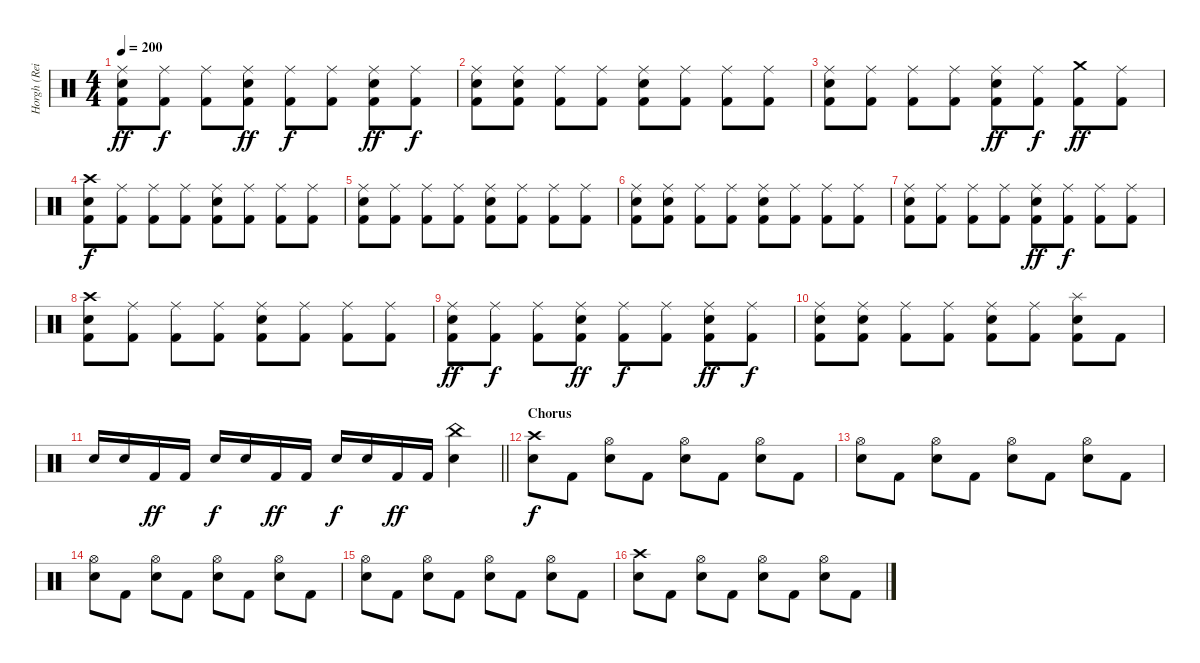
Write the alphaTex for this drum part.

\track ("Horgh (Reidar Horghagen)" "Horgh (Rei") {instrument percussion}
\staff {score}
\articulation defaults
\ts (4 4)
\tempo 200
\clef neutral
\ks c
("Ride (middle)" "Snare (hit) 2" "Kick (hit) 2").8{dy ff} ("Ride (middle)" "Kick (hit) 2").8{dy f} ("Ride (middle)" "Kick (hit) 2").8 ("Ride (middle)" "Snare (hit) 2" "Kick (hit) 2").8{dy ff} ("Ride (middle)" "Kick (hit) 2").8{dy f} ("Ride (middle)" "Kick (hit) 2").8 ("Ride (middle)" "Snare (hit) 2" "Kick (hit) 2").8{dy ff} ("Ride (middle)" "Kick (hit) 2").8{dy f} |
("Ride (middle)" "Snare (hit) 2" "Kick (hit) 2").8 ("Ride (middle)" "Snare (hit) 2" "Kick (hit) 2").8 ("Ride (middle)" "Kick (hit) 2").8 ("Ride (middle)" "Kick (hit) 2").8 ("Ride (middle)" "Snare (hit) 2" "Kick (hit) 2").8 ("Ride (middle)" "Kick (hit) 2").8 ("Ride (middle)" "Kick (hit) 2").8 ("Ride (middle)" "Kick (hit) 2").8 |
("Ride (middle)" "Snare (hit) 2" "Kick (hit) 2").8 ("Ride (middle)" "Kick (hit) 2").8 ("Ride (middle)" "Kick (hit) 2").8 ("Ride (middle)" "Kick (hit) 2").8 ("Ride (middle)" "Snare (hit) 2" "Kick (hit) 2").8{dy ff} ("Ride (middle)" "Kick (hit) 2").8{dy f} ("Crash medium (hit)" "Kick (hit) 2").8{dy ff} ("Ride (middle)" "Kick (hit) 2").8 |
("Crash high (hit)" "Snare (hit) 2" "Kick (hit) 2").8{dy f} ("Ride (middle)" "Kick (hit) 2").8 ("Ride (middle)" "Kick (hit) 2").8 ("Ride (middle)" "Kick (hit) 2").8 ("Ride (middle)" "Snare (hit) 2" "Kick (hit) 2").8 ("Ride (middle)" "Kick (hit) 2").8 ("Ride (middle)" "Kick (hit) 2").8 ("Ride (middle)" "Kick (hit) 2").8 |
("Ride (middle)" "Snare (hit) 2" "Kick (hit) 2").8 ("Ride (middle)" "Kick (hit) 2").8 ("Ride (middle)" "Kick (hit) 2").8 ("Ride (middle)" "Kick (hit) 2").8 ("Ride (middle)" "Snare (hit) 2" "Kick (hit) 2").8 ("Ride (middle)" "Kick (hit) 2").8 ("Ride (middle)" "Kick (hit) 2").8 ("Ride (middle)" "Kick (hit) 2").8 |
("Ride (middle)" "Snare (hit) 2" "Kick (hit) 2").8 ("Ride (middle)" "Snare (hit) 2" "Kick (hit) 2").8 ("Ride (middle)" "Kick (hit) 2").8 ("Ride (middle)" "Kick (hit) 2").8 ("Ride (middle)" "Snare (hit) 2" "Kick (hit) 2").8 ("Ride (middle)" "Kick (hit) 2").8 ("Ride (middle)" "Kick (hit) 2").8 ("Ride (middle)" "Kick (hit) 2").8 |
("Ride (middle)" "Snare (hit) 2" "Kick (hit) 2").8 ("Ride (middle)" "Kick (hit) 2").8 ("Ride (middle)" "Kick (hit) 2").8 ("Ride (middle)" "Kick (hit) 2").8 ("Ride (middle)" "Snare (hit) 2" "Kick (hit) 2").8{dy ff} ("Ride (middle)" "Kick (hit) 2").8{dy f} ("Ride (middle)" "Kick (hit) 2").8 ("Ride (middle)" "Kick (hit) 2").8 |
("Crash high (hit)" "Snare (hit) 2" "Kick (hit) 2").8 ("Ride (middle)" "Kick (hit) 2").8 ("Ride (middle)" "Kick (hit) 2").8 ("Ride (middle)" "Kick (hit) 2").8 ("Ride (middle)" "Snare (hit) 2" "Kick (hit) 2").8 ("Ride (middle)" "Kick (hit) 2").8 ("Ride (middle)" "Kick (hit) 2").8 ("Ride (middle)" "Kick (hit) 2").8 |
("Ride (middle)" "Snare (hit) 2" "Kick (hit) 2").8{dy ff} ("Ride (middle)" "Kick (hit) 2").8{dy f} ("Ride (middle)" "Kick (hit) 2").8 ("Ride (middle)" "Snare (hit) 2" "Kick (hit) 2").8{dy ff} ("Ride (middle)" "Kick (hit) 2").8{dy f} ("Ride (middle)" "Kick (hit) 2").8 ("Ride (middle)" "Snare (hit) 2" "Kick (hit) 2").8{dy ff} ("Ride (middle)" "Kick (hit) 2").8{dy f} |
("Ride (middle)" "Snare (hit) 2" "Kick (hit) 2").8 ("Ride (middle)" "Snare (hit) 2" "Kick (hit) 2").8 ("Ride (middle)" "Kick (hit) 2").8 ("Ride (middle)" "Kick (hit) 2").8 ("Ride (middle)" "Snare (hit) 2" "Kick (hit) 2").8 ("Ride (middle)" "Kick (hit) 2").8 ("Splash (hit)" "Snare (hit) 2" "Kick (hit) 2").8 "Kick (hit) 2".8 |
\barLineRight lightlight "Snare (hit) 2".16 "Snare (hit) 2".16 "Kick (hit) 2".16{dy ff} "Kick (hit) 2".16 "Snare (hit) 2".16{dy f} "Snare (hit) 2".16 "Kick (hit) 2".16{dy ff} "Kick (hit) 2".16 "Snare (hit) 2".16{dy f} "Snare (hit) 2".16 "Kick (hit) 2".16{dy ff} "Kick (hit) 2".16
("China (hit)" "Snare (hit) 2").4 |
\section ("" "Chorus")
("Crash high (hit)" "Snare (hit) 2").8{dy f} "Kick (hit) 2".8 ("Hi-Hat (open)" "Snare (hit) 2").8 "Kick (hit) 2".8 ("Hi-Hat (open)" "Snare (hit) 2").8 "Kick (hit) 2".8 ("Hi-Hat (open)" "Snare (hit) 2").8 "Kick (hit) 2".8 |
("Hi-Hat (open)" "Snare (hit) 2").8 "Kick (hit) 2".8 ("Hi-Hat (open)" "Snare (hit) 2").8 "Kick (hit) 2".8 ("Hi-Hat (open)" "Snare (hit) 2").8 "Kick (hit) 2".8 ("Hi-Hat (open)" "Snare (hit) 2").8 "Kick (hit) 2".8 |
("Hi-Hat (open)" "Snare (hit) 2").8 "Kick (hit) 2".8 ("Hi-Hat (open)" "Snare (hit) 2").8 "Kick (hit) 2".8 ("Hi-Hat (open)" "Snare (hit) 2").8 "Kick (hit) 2".8 ("Hi-Hat (open)" "Snare (hit) 2").8 "Kick (hit) 2".8 |
("Hi-Hat (open)" "Snare (hit) 2").8 "Kick (hit) 2".8 ("Hi-Hat (open)" "Snare (hit) 2").8 "Kick (hit) 2".8 ("Hi-Hat (open)" "Snare (hit) 2").8 "Kick (hit) 2".8 ("Hi-Hat (open)" "Snare (hit) 2").8 "Kick (hit) 2".8 |
("Crash high (hit)" "Snare (hit) 2").8 "Kick (hit) 2".8 ("Hi-Hat (open)" "Snare (hit) 2").8 "Kick (hit) 2".8 ("Hi-Hat (open)" "Snare (hit) 2").8 "Kick (hit) 2".8 ("Hi-Hat (open)" "Snare (hit) 2").8 "Kick (hit) 2".8
